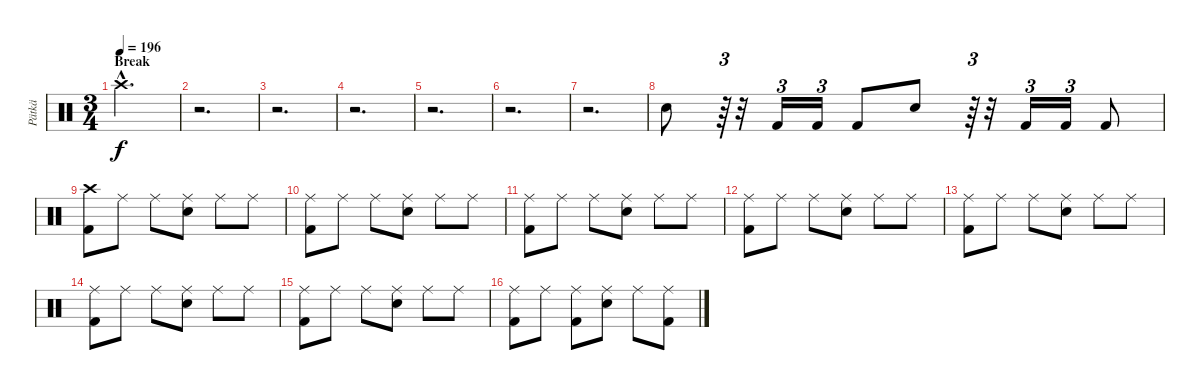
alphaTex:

\track ("Pätkä" "Pätkä") {instrument percussion}
\staff {score}
\articulation defaults
\ts (3 4)
\section ("" "Break")
\tempo 196
\clef neutral
\ks c "Crash high (hit)"{hac}.2{d dy f}
|
r.2{d} |
r.2{d} |
r.2{d} |
r.2{d} |
r.2{d} |
r.2{d} |
"Electric Snare (hit)".8 r.64{tu (3 2)} r.32 "Kick (hit) 2".16{tu (3 2)} "Kick (hit) 2".16{tu (3 2)} "Kick (hit) 2".8 "Electric Snare (hit)".8 r.64{tu (3 2)} r.32 "Kick (hit) 2".16{tu (3 2)} "Kick (hit) 2".16{tu (3 2)} "Kick (hit) 2".8 |
("Crash high (hit)" "Kick (hit) 2").8 "Ride (middle)".8 "Ride (middle)".8 ("Ride (middle)" "Electric Snare (hit)").8 "Ride (middle)".8 "Ride (middle)".8 |
("Ride (middle)" "Kick (hit) 2").8 "Ride (middle)".8 "Ride (middle)".8 ("Ride (middle)" "Electric Snare (hit)").8 "Ride (middle)".8 "Ride (middle)".8 |
("Ride (middle)" "Kick (hit) 2").8 "Ride (middle)".8 "Ride (middle)".8 ("Ride (middle)" "Electric Snare (hit)").8 "Ride (middle)".8 "Ride (middle)".8 |
("Ride (middle)" "Kick (hit) 2").8 "Ride (middle)".8 "Ride (middle)".8 ("Ride (middle)" "Electric Snare (hit)").8 "Ride (middle)".8 "Ride (middle)".8 |
("Ride (middle)" "Kick (hit) 2").8 "Ride (middle)".8 "Ride (middle)".8 ("Ride (middle)" "Electric Snare (hit)").8 "Ride (middle)".8 "Ride (middle)".8 |
("Ride (middle)" "Kick (hit) 2").8 "Ride (middle)".8 "Ride (middle)".8 ("Ride (middle)" "Electric Snare (hit)").8 "Ride (middle)".8 "Ride (middle)".8 |
("Ride (middle)" "Kick (hit) 2").8 "Ride (middle)".8 "Ride (middle)".8 ("Ride (middle)" "Electric Snare (hit)").8 "Ride (middle)".8 "Ride (middle)".8 |
("Ride (middle)" "Kick (hit) 2").8 "Ride (middle)".8 ("Ride (middle)" "Kick (hit) 2").8 ("Ride (middle)" "Electric Snare (hit)").8 "Ride (middle)".8 ("Ride (middle)" "Kick (hit) 2").8
